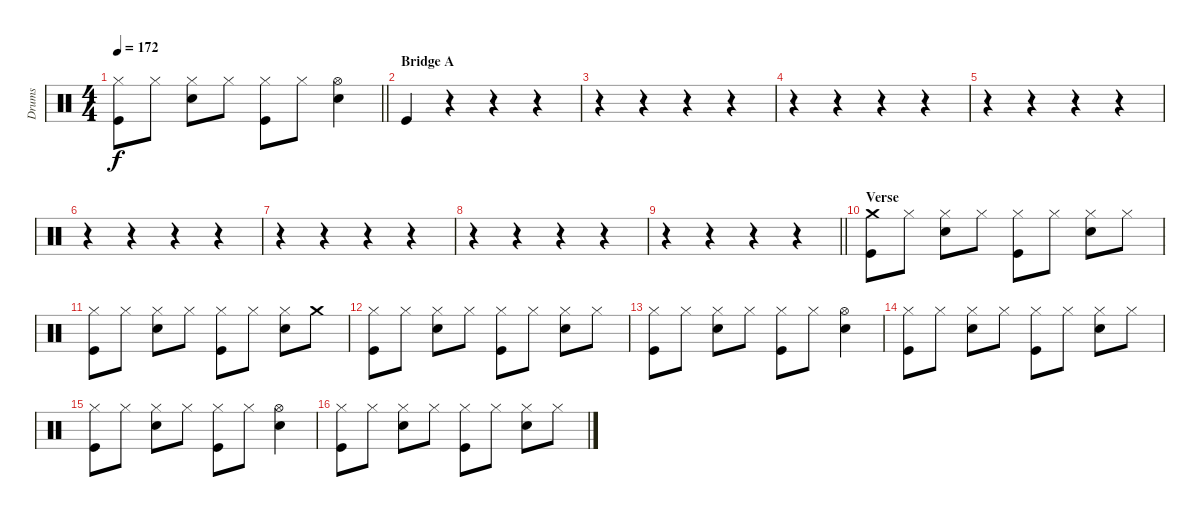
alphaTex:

\track ("Drums" "Drums") {instrument percussion}
\staff {score}
\articulation defaults
\ts (4 4)
\tempo 172
\clef neutral
\barLineRight lightlight
\ks c
("Hi-Hat (closed)" "Kick (hit)").8{dy f} "Hi-Hat (closed)".8 ("Hi-Hat (closed)" "Snare (hit) 2").8 "Hi-Hat (closed)".8 ("Hi-Hat (closed)" "Kick (hit)").8 "Hi-Hat (closed)".8 ("Hi-Hat (open)" "Snare (hit) 2").4 |
\section ("" "Bridge A")
"Kick (hit)".4 r.4 r.4 r.4 |
r.4 r.4 r.4 r.4 |
r.4 r.4 r.4 r.4 |
r.4 r.4 r.4 r.4 |
r.4 r.4 r.4 r.4 |
r.4 r.4 r.4 r.4 |
r.4 r.4 r.4 r.4 |
\barLineRight lightlight
r.4 r.4 r.4 r.4 |
\section ("" "Verse")
("Crash medium (hit)" "Kick (hit)").8 "Hi-Hat (closed)".8 ("Hi-Hat (closed)" "Snare (hit) 2").8 "Hi-Hat (closed)".8 ("Hi-Hat (closed)" "Kick (hit)").8 "Hi-Hat (closed)".8 ("Hi-Hat (closed)" "Snare (hit) 2").8 "Hi-Hat (closed)".8 |
("Hi-Hat (closed)" "Kick (hit)").8 "Hi-Hat (closed)".8 ("Hi-Hat (closed)" "Snare (hit) 2").8 "Hi-Hat (closed)".8 ("Hi-Hat (closed)" "Kick (hit)").8 "Hi-Hat (closed)".8 ("Hi-Hat (closed)" "Snare (hit) 2").8 "Crash medium (hit)".8 |
("Hi-Hat (closed)" "Kick (hit)").8 "Hi-Hat (closed)".8 ("Hi-Hat (closed)" "Snare (hit) 2").8 "Hi-Hat (closed)".8 ("Hi-Hat (closed)" "Kick (hit)").8 "Hi-Hat (closed)".8 ("Hi-Hat (closed)" "Snare (hit) 2").8 "Hi-Hat (closed)".8 |
("Hi-Hat (closed)" "Kick (hit)").8 "Hi-Hat (closed)".8 ("Hi-Hat (closed)" "Snare (hit) 2").8 "Hi-Hat (closed)".8 ("Hi-Hat (closed)" "Kick (hit)").8 "Hi-Hat (closed)".8 ("Hi-Hat (open)" "Snare (hit) 2").4 |
("Hi-Hat (closed)" "Kick (hit)").8 "Hi-Hat (closed)".8 ("Hi-Hat (closed)" "Snare (hit) 2").8 "Hi-Hat (closed)".8 ("Hi-Hat (closed)" "Kick (hit)").8 "Hi-Hat (closed)".8 ("Hi-Hat (closed)" "Snare (hit) 2").8 "Hi-Hat (closed)".8 |
("Hi-Hat (closed)" "Kick (hit)").8 "Hi-Hat (closed)".8 ("Hi-Hat (closed)" "Snare (hit) 2").8 "Hi-Hat (closed)".8 ("Hi-Hat (closed)" "Kick (hit)").8 "Hi-Hat (closed)".8 ("Hi-Hat (open)" "Snare (hit) 2").4 |
("Hi-Hat (closed)" "Kick (hit)").8 "Hi-Hat (closed)".8 ("Hi-Hat (closed)" "Snare (hit) 2").8 "Hi-Hat (closed)".8 ("Hi-Hat (closed)" "Kick (hit)").8 "Hi-Hat (closed)".8 ("Hi-Hat (closed)" "Snare (hit) 2").8 "Hi-Hat (closed)".8
